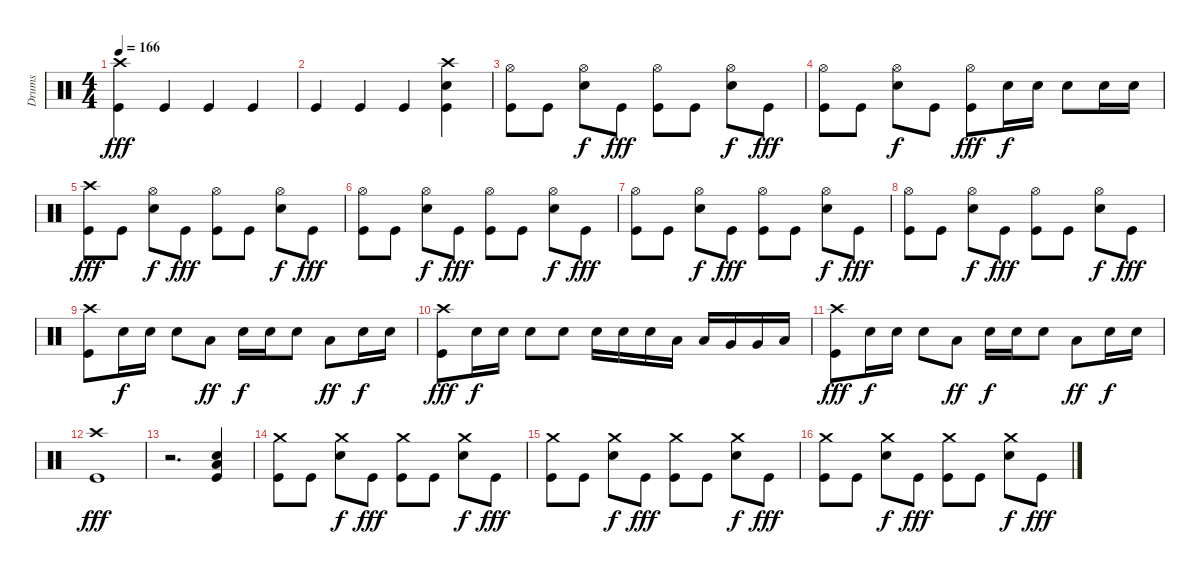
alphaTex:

\track ("Drums" "Drums") {instrument percussion}
\staff {score}
\articulation defaults
\ts (4 4)
\tempo 166
\clef neutral
\ks c
("Crash high (hit)" "Kick (hit)").4{dy fff} "Kick (hit)".4 "Kick (hit)".4 "Kick (hit)".4 |
"Kick (hit)".4 "Kick (hit)".4 "Kick (hit)".4 ("Crash high (hit)" "Snare (hit) 2" "Kick (hit)").4 |
("Hi-Hat (open)" "Kick (hit)").8 "Kick (hit)".8 ("Hi-Hat (open)" "Snare (hit) 2").8{dy f} "Kick (hit)".8{dy fff} ("Hi-Hat (open)" "Kick (hit)").8 "Kick (hit)".8 ("Hi-Hat (open)" "Snare (hit) 2").8{dy f} "Kick (hit)".8{dy fff} |
("Hi-Hat (open)" "Kick (hit)").8 "Kick (hit)".8 ("Hi-Hat (open)" "Snare (hit) 2").8{dy f} "Kick (hit)".8 ("Hi-Hat (open)" "Kick (hit)").8{dy fff} "Snare (hit) 2".16{dy f} "Snare (hit) 2".16 "Snare (hit) 2".8 "Snare (hit) 2".16 "Snare (hit) 2".16 |
("Crash high (hit)" "Kick (hit)").8{dy fff} "Kick (hit)".8 ("Hi-Hat (open)" "Snare (hit) 2").8{dy f} "Kick (hit)".8{dy fff} ("Hi-Hat (open)" "Kick (hit)").8 "Kick (hit)".8 ("Hi-Hat (open)" "Snare (hit) 2").8{dy f} "Kick (hit)".8{dy fff} |
("Hi-Hat (open)" "Kick (hit)").8 "Kick (hit)".8 ("Hi-Hat (open)" "Snare (hit) 2").8{dy f} "Kick (hit)".8{dy fff} ("Hi-Hat (open)" "Kick (hit)").8 "Kick (hit)".8 ("Hi-Hat (open)" "Snare (hit) 2").8{dy f} "Kick (hit)".8{dy fff} |
("Hi-Hat (open)" "Kick (hit)").8 "Kick (hit)".8 ("Hi-Hat (open)" "Snare (hit) 2").8{dy f} "Kick (hit)".8{dy fff} ("Hi-Hat (open)" "Kick (hit)").8 "Kick (hit)".8 ("Hi-Hat (open)" "Snare (hit) 2").8{dy f} "Kick (hit)".8{dy fff} |
("Hi-Hat (open)" "Kick (hit)").8 "Kick (hit)".8 ("Hi-Hat (open)" "Snare (hit) 2").8{dy f} "Kick (hit)".8{dy fff} ("Hi-Hat (open)" "Kick (hit)").8 "Kick (hit)".8 ("Hi-Hat (open)" "Snare (hit) 2").8{dy f} "Kick (hit)".8{dy fff} |
("Crash high (hit)" "Kick (hit)").8 "Snare (hit) 2".16{dy f} "Snare (hit) 2".16 "Snare (hit) 2".8 "Low Tom (hit)".8{dy ff} "Snare (hit) 2".16{dy f} "Snare (hit) 2".16 "Snare (hit) 2".8 "Low Tom (hit)".8{dy ff} "Snare (hit) 2".16{dy f} "Snare (hit) 2".16 |
("Crash high (hit)" "Kick (hit)").8{dy fff} "Snare (hit) 2".16{dy f} "Snare (hit) 2".16 "Snare (hit) 2".8 "Snare (hit) 2".8 "Snare (hit) 2".16 "Snare (hit) 2".16 "Snare (hit) 2".16 "Low Tom (hit)".16 "Low Tom (hit)".16 "Very Low Tom (hit)".16 "Very Low Tom (hit)".16 "Low Floor Tom (hit)".16 |
("Crash high (hit)" "Kick (hit)").8{dy fff} "Snare (hit) 2".16{dy f} "Snare (hit) 2".16 "Snare (hit) 2".8 "Low Tom (hit)".8{dy ff} "Snare (hit) 2".16{dy f} "Snare (hit) 2".16 "Snare (hit) 2".8 "Low Tom (hit)".8{dy ff} "Snare (hit) 2".16{dy f} "Snare (hit) 2".16 |
("Crash high (hit)" "Kick (hit)").1{dy fff} |
r.2{d} ("Snare (hit) 2" "Low Floor Tom (hit)" "Kick (hit)").4 |
("Crash medium (hit)" "Kick (hit)").8 "Kick (hit)".8 ("Crash medium (hit)" "Snare (hit) 2").8{dy f} "Kick (hit)".8{dy fff} ("Crash medium (hit)" "Kick (hit)").8 "Kick (hit)".8 ("Crash medium (hit)" "Snare (hit) 2").8{dy f} "Kick (hit)".8{dy fff} |
("Crash medium (hit)" "Kick (hit)").8 "Kick (hit)".8 ("Crash medium (hit)" "Snare (hit) 2").8{dy f} "Kick (hit)".8{dy fff} ("Crash medium (hit)" "Kick (hit)").8 "Kick (hit)".8 ("Crash medium (hit)" "Snare (hit) 2").8{dy f} "Kick (hit)".8{dy fff} |
("Crash medium (hit)" "Kick (hit)").8 "Kick (hit)".8 ("Crash medium (hit)" "Snare (hit) 2").8{dy f} "Kick (hit)".8{dy fff} ("Crash medium (hit)" "Kick (hit)").8 "Kick (hit)".8 ("Crash medium (hit)" "Snare (hit) 2").8{dy f} "Kick (hit)".8{dy fff}
